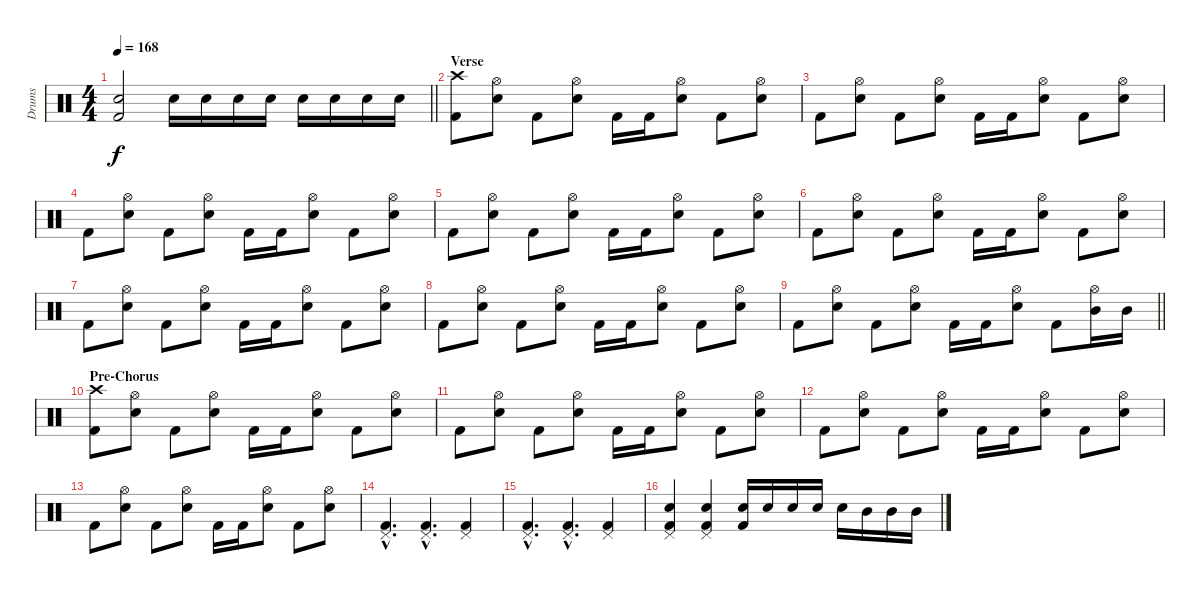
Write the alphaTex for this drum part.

\track ("Drums" "Drums") {instrument percussion}
\staff {score}
\articulation defaults
\ts (4 4)
\tempo 168
\clef neutral
\barLineRight lightlight
\ks c
("Kick (hit) 2" "Snare (hit) 2").2{dy f} "Snare (hit) 2".16 "Snare (hit) 2".16 "Snare (hit) 2".16 "Snare (hit) 2".16 "Snare (hit) 2".16 "Snare (hit) 2".16 "Snare (hit) 2".16 "Snare (hit) 2".16 |
\section ("" "Verse")
("Kick (hit) 2" "Crash high (hit)").8 ("Snare (hit) 2" "Hi-Hat (open)").8 "Kick (hit) 2".8 ("Snare (hit) 2" "Hi-Hat (open)").8 "Kick (hit) 2".16 "Kick (hit) 2".16 ("Snare (hit) 2" "Hi-Hat (open)").8 "Kick (hit) 2".8 ("Snare (hit) 2" "Hi-Hat (open)").8 |
"Kick (hit) 2".8 ("Snare (hit) 2" "Hi-Hat (open)").8 "Kick (hit) 2".8 ("Snare (hit) 2" "Hi-Hat (open)").8 "Kick (hit) 2".16 "Kick (hit) 2".16 ("Snare (hit) 2" "Hi-Hat (open)").8 "Kick (hit) 2".8 ("Snare (hit) 2" "Hi-Hat (open)").8 |
"Kick (hit) 2".8 ("Snare (hit) 2" "Hi-Hat (open)").8 "Kick (hit) 2".8 ("Snare (hit) 2" "Hi-Hat (open)").8 "Kick (hit) 2".16 "Kick (hit) 2".16 ("Snare (hit) 2" "Hi-Hat (open)").8 "Kick (hit) 2".8 ("Snare (hit) 2" "Hi-Hat (open)").8 |
"Kick (hit) 2".8 ("Snare (hit) 2" "Hi-Hat (open)").8 "Kick (hit) 2".8 ("Snare (hit) 2" "Hi-Hat (open)").8 "Kick (hit) 2".16 "Kick (hit) 2".16 ("Snare (hit) 2" "Hi-Hat (open)").8 "Kick (hit) 2".8 ("Snare (hit) 2" "Hi-Hat (open)").8 |
"Kick (hit) 2".8 ("Snare (hit) 2" "Hi-Hat (open)").8 "Kick (hit) 2".8 ("Snare (hit) 2" "Hi-Hat (open)").8 "Kick (hit) 2".16 "Kick (hit) 2".16 ("Snare (hit) 2" "Hi-Hat (open)").8 "Kick (hit) 2".8 ("Snare (hit) 2" "Hi-Hat (open)").8 |
"Kick (hit) 2".8 ("Snare (hit) 2" "Hi-Hat (open)").8 "Kick (hit) 2".8 ("Snare (hit) 2" "Hi-Hat (open)").8 "Kick (hit) 2".16 "Kick (hit) 2".16 ("Snare (hit) 2" "Hi-Hat (open)").8 "Kick (hit) 2".8 ("Snare (hit) 2" "Hi-Hat (open)").8 |
"Kick (hit) 2".8 ("Snare (hit) 2" "Hi-Hat (open)").8 "Kick (hit) 2".8 ("Snare (hit) 2" "Hi-Hat (open)").8 "Kick (hit) 2".16 "Kick (hit) 2".16 ("Snare (hit) 2" "Hi-Hat (open)").8 "Kick (hit) 2".8 ("Snare (hit) 2" "Hi-Hat (open)").8 |
\barLineRight lightlight "Kick (hit) 2".8
("Snare (hit) 2" "Hi-Hat (open)").8 "Kick (hit) 2".8 ("Snare (hit) 2" "Hi-Hat (open)").8 "Kick (hit) 2".16 "Kick (hit) 2".16 ("Snare (hit) 2" "Hi-Hat (open)").8 "Kick (hit) 2".8 ("Hi-Hat (open)" "Mid Tom (hit)").16 "Mid Tom (hit)".16 |
\section ("" "Pre-Chorus")
("Kick (hit) 2" "Crash high (hit)").8 ("Snare (hit) 2" "Hi-Hat (open)").8 "Kick (hit) 2".8 ("Snare (hit) 2" "Hi-Hat (open)").8 "Kick (hit) 2".16 "Kick (hit) 2".16 ("Snare (hit) 2" "Hi-Hat (open)").8 "Kick (hit) 2".8 ("Snare (hit) 2" "Hi-Hat (open)").8 |
"Kick (hit) 2".8 ("Snare (hit) 2" "Hi-Hat (open)").8 "Kick (hit) 2".8 ("Snare (hit) 2" "Hi-Hat (open)").8 "Kick (hit) 2".16 "Kick (hit) 2".16 ("Snare (hit) 2" "Hi-Hat (open)").8 "Kick (hit) 2".8 ("Snare (hit) 2" "Hi-Hat (open)").8 |
"Kick (hit) 2".8 ("Snare (hit) 2" "Hi-Hat (open)").8 "Kick (hit) 2".8 ("Snare (hit) 2" "Hi-Hat (open)").8 "Kick (hit) 2".16 "Kick (hit) 2".16 ("Snare (hit) 2" "Hi-Hat (open)").8 "Kick (hit) 2".8 ("Snare (hit) 2" "Hi-Hat (open)").8 |
"Kick (hit) 2".8 ("Snare (hit) 2" "Hi-Hat (open)").8 "Kick (hit) 2".8 ("Snare (hit) 2" "Hi-Hat (open)").8 "Kick (hit) 2".16 "Kick (hit) 2".16 ("Snare (hit) 2" "Hi-Hat (open)").8 "Kick (hit) 2".8 ("Snare (hit) 2" "Hi-Hat (open)").8 |
("Kick (hit) 2"{hac} "Pedal Hi-Hat (hit)"{hac}).4{d} ("Kick (hit) 2"{hac} "Pedal Hi-Hat (hit)"{hac}).4{d} ("Kick (hit) 2" "Pedal Hi-Hat (hit)").4 |
("Kick (hit) 2"{hac} "Pedal Hi-Hat (hit)"{hac}).4{d} ("Kick (hit) 2"{hac} "Pedal Hi-Hat (hit)"{hac}).4{d} ("Kick (hit) 2" "Pedal Hi-Hat (hit)").4 |
("Kick (hit) 2" "Snare (hit) 2" "Pedal Hi-Hat (hit)").4 ("Kick (hit) 2" "Snare (hit) 2" "Pedal Hi-Hat (hit)").4 ("Kick (hit) 2" "Snare (hit) 2").16 "Snare (hit) 2".16 "Snare (hit) 2".16 "Snare (hit) 2".16 "Snare (hit) 2".16 "Mid Tom (hit)".16 "Mid Tom (hit)".16 "Mid Tom (hit)".16
